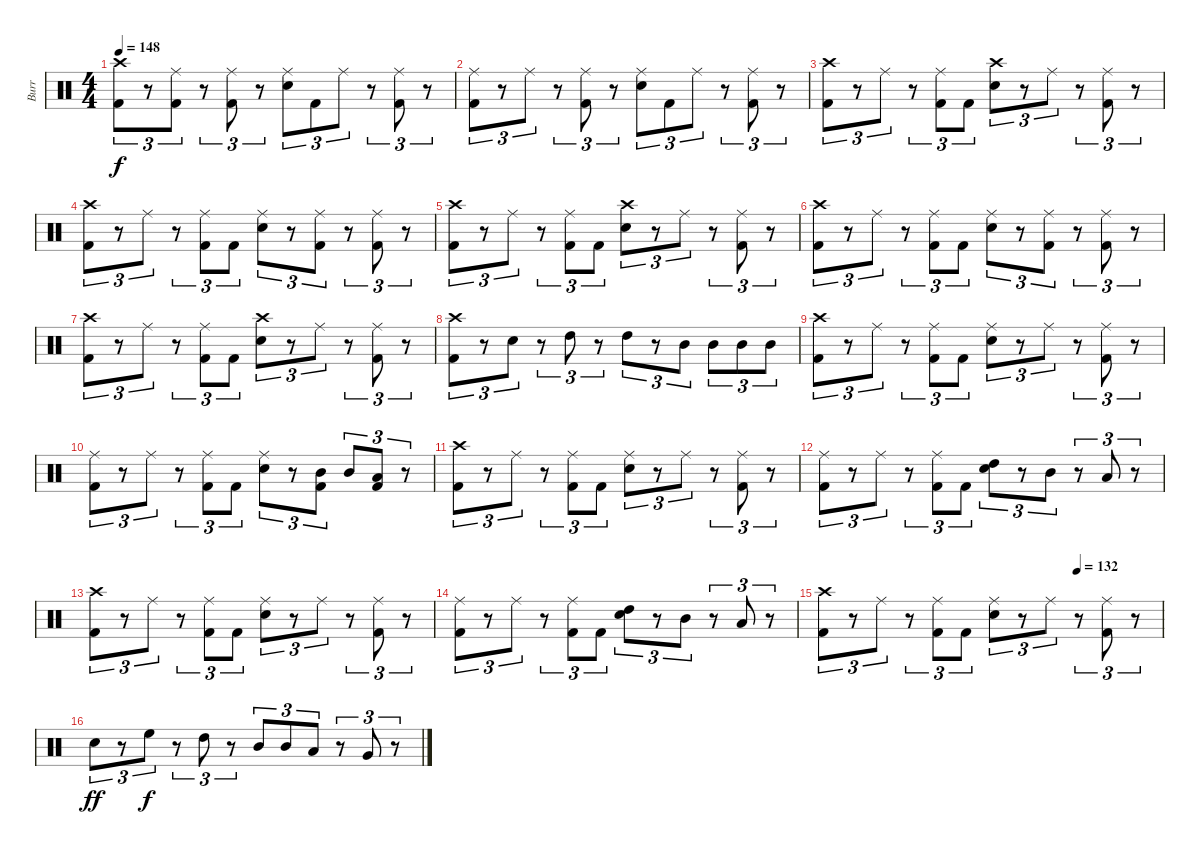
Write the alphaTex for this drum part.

\track ("Burr" "Burr") {instrument percussion}
\staff {score}
\articulation defaults
\ts (4 4)
\tempo 148
\clef neutral
\ks c
("Crash high (hit)" "Kick (hit) 2").8{tu (3 2) dy f} r.8{tu (3 2)} ("Ride (middle)" "Kick (hit) 2").8{tu (3 2)} r.8{tu (3 2)} ("Ride (middle)" "Kick (hit) 2").8{tu (3 2)} r.8{tu (3 2)} ("Ride (middle)" "Snare (hit) 2").8{tu (3 2)} "Kick (hit) 2".8{tu (3 2)} "Ride (middle)".8{tu (3 2)} r.8{tu (3 2)} ("Ride (middle)" "Kick (hit) 2").8{tu (3 2)} r.8{tu (3 2)} |
("Ride (middle)" "Kick (hit) 2").8{tu (3 2)} r.8{tu (3 2)} "Ride (middle)".8{tu (3 2)} r.8{tu (3 2)} ("Ride (middle)" "Kick (hit) 2").8{tu (3 2)} r.8{tu (3 2)} ("Ride (middle)" "Snare (hit) 2").8{tu (3 2)} "Kick (hit) 2".8{tu (3 2)} "Ride (middle)".8{tu (3 2)} r.8{tu (3 2)} ("Ride (middle)" "Kick (hit) 2").8{tu (3 2)} r.8{tu (3 2)} |
("Crash high (hit)" "Kick (hit) 2").8{tu (3 2)} r.8{tu (3 2)} "Ride (middle)".8{tu (3 2)} r.8{tu (3 2)} ("Ride (middle)" "Kick (hit) 2").8{tu (3 2)} "Kick (hit) 2".8{tu (3 2)} ("Crash high (hit)" "Snare (hit) 2").8{tu (3 2)} r.8{tu (3 2)} "Ride (middle)".8{tu (3 2)} r.8{tu (3 2)} ("Ride (middle)" "Kick (hit) 2").8{tu (3 2)} r.8{tu (3 2)} |
("Crash high (hit)" "Kick (hit) 2").8{tu (3 2)} r.8{tu (3 2)} "Ride (middle)".8{tu (3 2)} r.8{tu (3 2)} ("Ride (middle)" "Kick (hit) 2").8{tu (3 2)} "Kick (hit) 2".8{tu (3 2)} ("Ride (middle)" "Snare (hit) 2").8{tu (3 2)} r.8{tu (3 2)} ("Ride (middle)" "Kick (hit) 2").8{tu (3 2)} r.8{tu (3 2)} ("Ride (middle)" "Kick (hit) 2").8{tu (3 2)} r.8{tu (3 2)} |
("Crash high (hit)" "Kick (hit) 2").8{tu (3 2)} r.8{tu (3 2)} "Ride (middle)".8{tu (3 2)} r.8{tu (3 2)} ("Ride (middle)" "Kick (hit) 2").8{tu (3 2)} "Kick (hit) 2".8{tu (3 2)} ("Crash high (hit)" "Snare (hit) 2").8{tu (3 2)} r.8{tu (3 2)} "Ride (middle)".8{tu (3 2)} r.8{tu (3 2)} ("Ride (middle)" "Kick (hit) 2").8{tu (3 2)} r.8{tu (3 2)} |
("Crash high (hit)" "Kick (hit) 2").8{tu (3 2)} r.8{tu (3 2)} "Ride (middle)".8{tu (3 2)} r.8{tu (3 2)} ("Ride (middle)" "Kick (hit) 2").8{tu (3 2)} "Kick (hit) 2".8{tu (3 2)} ("Ride (middle)" "Snare (hit) 2").8{tu (3 2)} r.8{tu (3 2)} ("Ride (middle)" "Kick (hit) 2").8{tu (3 2)} r.8{tu (3 2)} ("Ride (middle)" "Kick (hit) 2").8{tu (3 2)} r.8{tu (3 2)} |
("Crash high (hit)" "Kick (hit) 2").8{tu (3 2)} r.8{tu (3 2)} "Ride (middle)".8{tu (3 2)} r.8{tu (3 2)} ("Ride (middle)" "Kick (hit) 2").8{tu (3 2)} "Kick (hit) 2".8{tu (3 2)} ("Crash high (hit)" "Snare (hit) 2").8{tu (3 2)} r.8{tu (3 2)} "Ride (middle)".8{tu (3 2)} r.8{tu (3 2)} ("Ride (middle)" "Kick (hit) 2").8{tu (3 2)} r.8{tu (3 2)} |
("Crash high (hit)" "Kick (hit) 2").8{tu (3 2)} r.8{tu (3 2)} "Snare (hit) 2".8{tu (3 2)} r.8{tu (3 2)} "High Tom (hit)".8{tu (3 2)} r.8{tu (3 2)} "High Tom (hit)".8{tu (3 2)} r.8{tu (3 2)} "Mid Tom (hit)".8{tu (3 2)} "Mid Tom (hit)".8{tu (3 2)} "Mid Tom (hit)".8{tu (3 2)} "Mid Tom (hit)".8{tu (3 2)} |
("Crash high (hit)" "Kick (hit) 2").8{tu (3 2)} r.8{tu (3 2)} "Ride (middle)".8{tu (3 2)} r.8{tu (3 2)} ("Ride (middle)" "Kick (hit) 2").8{tu (3 2)} "Kick (hit) 2".8{tu (3 2)} ("Ride (middle)" "Snare (hit) 2").8{tu (3 2)} r.8{tu (3 2)} "Ride (middle)".8{tu (3 2)} r.8{tu (3 2)} ("Ride (middle)" "Kick (hit) 2").8{tu (3 2)} r.8{tu (3 2)} |
("Ride (middle)" "Kick (hit) 2").8{tu (3 2)} r.8{tu (3 2)} "Ride (middle)".8{tu (3 2)} r.8{tu (3 2)} ("Ride (middle)" "Kick (hit) 2").8{tu (3 2)} "Kick (hit) 2".8{tu (3 2)} ("Ride (middle)" "Snare (hit) 2").8{tu (3 2)} r.8{tu (3 2)} ("Mid Tom (hit)" "Kick (hit) 2").8{tu (3 2)} "Mid Tom (hit)".8{tu (3 2)} ("Low Tom (hit)" "Kick (hit) 2").8{tu (3 2)} r.8{tu (3 2)} |
("Crash high (hit)" "Kick (hit) 2").8{tu (3 2)} r.8{tu (3 2)} "Ride (middle)".8{tu (3 2)} r.8{tu (3 2)} ("Ride (middle)" "Kick (hit) 2").8{tu (3 2)} "Kick (hit) 2".8{tu (3 2)} ("Ride (middle)" "Snare (hit) 2").8{tu (3 2)} r.8{tu (3 2)} "Ride (middle)".8{tu (3 2)} r.8{tu (3 2)} ("Ride (middle)" "Kick (hit) 2").8{tu (3 2)} r.8{tu (3 2)} |
("Ride (middle)" "Kick (hit) 2").8{tu (3 2)} r.8{tu (3 2)} "Ride (middle)".8{tu (3 2)} r.8{tu (3 2)} ("Ride (middle)" "Kick (hit) 2").8{tu (3 2)} "Kick (hit) 2".8{tu (3 2)} ("High Tom (hit)" "Snare (hit) 2").8{tu (3 2)} r.8{tu (3 2)} "Mid Tom (hit)".8{tu (3 2)} r.8{tu (3 2)} "Low Tom (hit)".8{tu (3 2)} r.8{tu (3 2)} |
("Crash high (hit)" "Kick (hit) 2").8{tu (3 2)} r.8{tu (3 2)} "Ride (middle)".8{tu (3 2)} r.8{tu (3 2)} ("Ride (middle)" "Kick (hit) 2").8{tu (3 2)} "Kick (hit) 2".8{tu (3 2)} ("Ride (middle)" "Snare (hit) 2").8{tu (3 2)} r.8{tu (3 2)} "Ride (middle)".8{tu (3 2)} r.8{tu (3 2)} ("Ride (middle)" "Kick (hit) 2").8{tu (3 2)} r.8{tu (3 2)} |
("Ride (middle)" "Kick (hit) 2").8{tu (3 2)} r.8{tu (3 2)} "Ride (middle)".8{tu (3 2)} r.8{tu (3 2)} ("Ride (middle)" "Kick (hit) 2").8{tu (3 2)} "Kick (hit) 2".8{tu (3 2)} ("High Tom (hit)" "Snare (hit) 2").8{tu (3 2)} r.8{tu (3 2)} "Mid Tom (hit)".8{tu (3 2)} r.8{tu (3 2)} "Low Tom (hit)".8{tu (3 2)} r.8{tu (3 2)} |
\tempo (132 0.75)
("Crash high (hit)" "Kick (hit) 2").8{tu (3 2)} r.8{tu (3 2)} "Ride (middle)".8{tu (3 2)} r.8{tu (3 2)} ("Ride (middle)" "Kick (hit) 2").8{tu (3 2)} "Kick (hit) 2".8{tu (3 2)} ("Ride (middle)" "Snare (hit) 2").8{tu (3 2)} r.8{tu (3 2)} "Ride (middle)".8{tu (3 2)} r.8{tu (3 2)} ("Ride (middle)" "Kick (hit) 2").8{tu (3 2)} r.8{tu (3 2)} |
"Snare (hit) 2".8{tu (3 2) dy ff} r.8{tu (3 2)} "High Floor Tom (hit)".8{tu (3 2) dy f} r.8{tu (3 2)} "High Tom (hit)".8{tu (3 2)} r.8{tu (3 2)} "Mid Tom (hit)".8{tu (3 2)} "Mid Tom (hit)".8{tu (3 2)} "Low Tom (hit)".8{tu (3 2)} r.8{tu (3 2)} "Very Low Tom (hit)".8{tu (3 2)} r.8{tu (3 2)}
